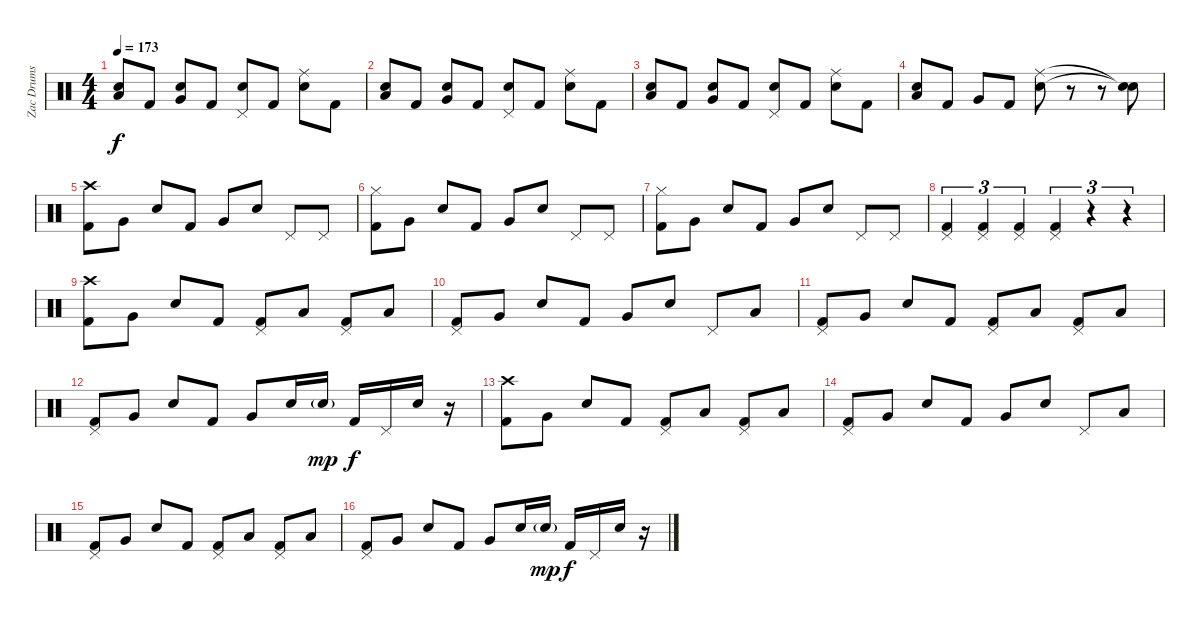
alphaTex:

\track ("Zac Drums" "Zac Drums") {instrument percussion}
\staff {score}
\articulation defaults
\ts (4 4)
\tempo 173
\clef neutral
\ks c
("Low Tom (hit)" "Electric Snare (hit)").8{dy f} "Kick (hit) 2".8 ("Very Low Tom (hit)" "Electric Snare (hit)").8 "Kick (hit) 2".8 ("Pedal Hi-Hat (hit)" "Electric Snare (hit)").8 "Kick (hit) 2".8 ("Ride (middle)" "Electric Snare (hit)").8 "Kick (hit) 2".8 |
("Low Tom (hit)" "Electric Snare (hit)").8 "Kick (hit) 2".8 ("Very Low Tom (hit)" "Electric Snare (hit)").8 "Kick (hit) 2".8 ("Pedal Hi-Hat (hit)" "Electric Snare (hit)").8 "Kick (hit) 2".8 ("Ride (middle)" "Electric Snare (hit)").8 "Kick (hit) 2".8 |
("Low Tom (hit)" "Electric Snare (hit)").8 "Kick (hit) 2".8 ("Very Low Tom (hit)" "Electric Snare (hit)").8 "Kick (hit) 2".8 ("Pedal Hi-Hat (hit)" "Electric Snare (hit)").8 "Kick (hit) 2".8 ("Ride (middle)" "Electric Snare (hit)").8 "Kick (hit) 2".8 |
("Low Tom (hit)" "Electric Snare (hit)").8 "Kick (hit) 2".8 "Very Low Tom (hit)".8 "Kick (hit) 2".8 ("Ride (middle)" "Electric Snare (hit)").8 r.8 r.8 ("Snare (hit)"{t} "Snare (hit)"{t}).8 |
("Crash high (hit)" "Kick (hit) 2").8 "Very Low Tom (hit)".8 "Electric Snare (hit)".8 "Kick (hit) 2".8 "Very Low Tom (hit)".8 "Electric Snare (hit)".8 "Pedal Hi-Hat (hit)".8 "Pedal Hi-Hat (hit)".8 |
("Hi-Hat (closed)" "Kick (hit) 2").8 "Very Low Tom (hit)".8 "Electric Snare (hit)".8 "Kick (hit) 2".8 "Very Low Tom (hit)".8 "Electric Snare (hit)".8 "Pedal Hi-Hat (hit)".8 "Pedal Hi-Hat (hit)".8 |
("Hi-Hat (closed)" "Kick (hit) 2").8 "Very Low Tom (hit)".8 "Electric Snare (hit)".8 "Kick (hit) 2".8 "Very Low Tom (hit)".8 "Electric Snare (hit)".8 "Pedal Hi-Hat (hit)".8 "Pedal Hi-Hat (hit)".8 |
("Pedal Hi-Hat (hit)" "Kick (hit) 2").4{tu (3 2)} ("Pedal Hi-Hat (hit)" "Kick (hit) 2").4{tu (3 2)} ("Pedal Hi-Hat (hit)" "Kick (hit) 2").4{tu (3 2)} ("Pedal Hi-Hat (hit)" "Kick (hit) 2").4{tu (3 2)} r.4{tu (3 2)} r.4{tu (3 2)} |
("Crash high (hit)" "Kick (hit) 2").8 "Very Low Tom (hit)".8 "Electric Snare (hit)".8 "Kick (hit) 2".8 ("Pedal Hi-Hat (hit)" "Kick (hit) 2").8 "Low Tom (hit)".8 ("Pedal Hi-Hat (hit)" "Kick (hit) 2").8 "Low Tom (hit)".8 |
("Pedal Hi-Hat (hit)" "Kick (hit) 2").8 "Very Low Tom (hit)".8 "Electric Snare (hit)".8 "Kick (hit) 2".8 "Very Low Tom (hit)".8 "Electric Snare (hit)".8 "Pedal Hi-Hat (hit)".8 "Low Tom (hit)".8 |
("Pedal Hi-Hat (hit)" "Kick (hit) 2").8 "Very Low Tom (hit)".8 "Electric Snare (hit)".8 "Kick (hit) 2".8 ("Pedal Hi-Hat (hit)" "Kick (hit) 2").8 "Low Tom (hit)".8 ("Pedal Hi-Hat (hit)" "Kick (hit) 2").8 "Low Tom (hit)".8 |
("Pedal Hi-Hat (hit)" "Kick (hit) 2").8 "Very Low Tom (hit)".8 "Electric Snare (hit)".8 "Kick (hit) 2".8 "Very Low Tom (hit)".8 "Electric Snare (hit)".16 "Electric Snare (hit)"{g}.16{dy mp} "Kick (hit) 2".16{dy f} "Pedal Hi-Hat (hit)".16 "Electric Snare (hit)".16 r.16 |
("Crash high (hit)" "Kick (hit) 2").8 "Very Low Tom (hit)".8 "Electric Snare (hit)".8 "Kick (hit) 2".8 ("Pedal Hi-Hat (hit)" "Kick (hit) 2").8 "Low Tom (hit)".8 ("Pedal Hi-Hat (hit)" "Kick (hit) 2").8 "Low Tom (hit)".8 |
("Pedal Hi-Hat (hit)" "Kick (hit) 2").8 "Very Low Tom (hit)".8 "Electric Snare (hit)".8 "Kick (hit) 2".8 "Very Low Tom (hit)".8 "Electric Snare (hit)".8 "Pedal Hi-Hat (hit)".8 "Low Tom (hit)".8 |
("Pedal Hi-Hat (hit)" "Kick (hit) 2").8 "Very Low Tom (hit)".8 "Electric Snare (hit)".8 "Kick (hit) 2".8 ("Pedal Hi-Hat (hit)" "Kick (hit) 2").8 "Low Tom (hit)".8 ("Pedal Hi-Hat (hit)" "Kick (hit) 2").8 "Low Tom (hit)".8 |
("Pedal Hi-Hat (hit)" "Kick (hit) 2").8 "Very Low Tom (hit)".8 "Electric Snare (hit)".8 "Kick (hit) 2".8 "Very Low Tom (hit)".8 "Electric Snare (hit)".16 "Electric Snare (hit)"{g}.16{dy mp} "Kick (hit) 2".16{dy f} "Pedal Hi-Hat (hit)".16 "Electric Snare (hit)".16 r.16
